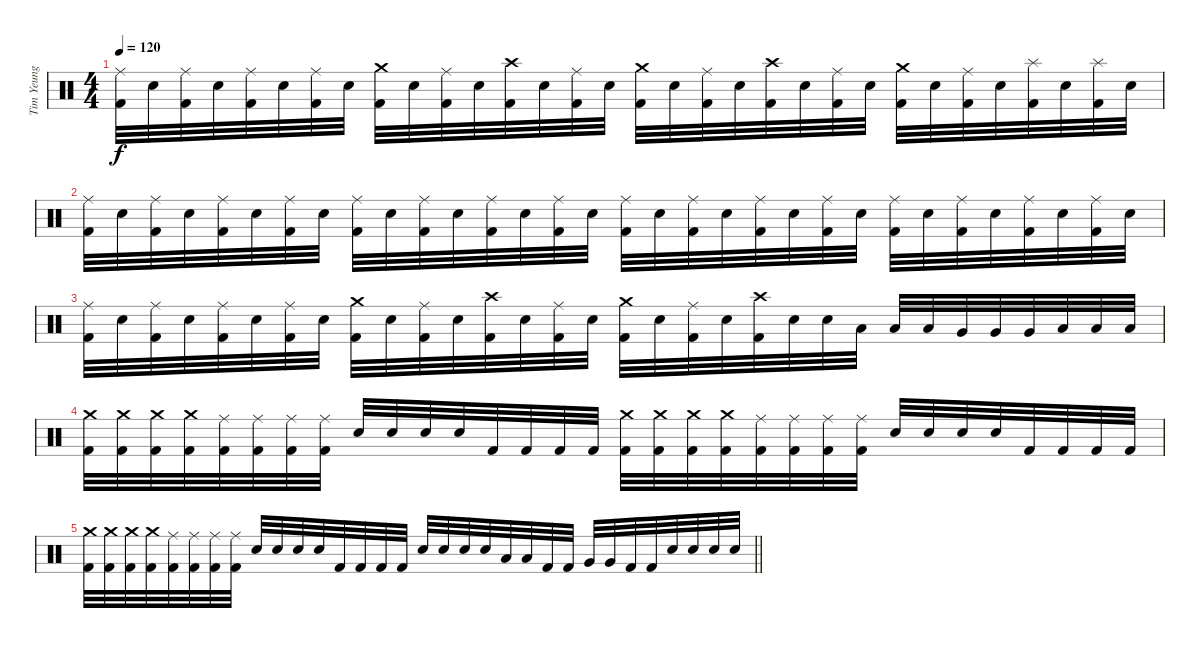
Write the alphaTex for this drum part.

\track ("Tim Yeung" "Tim Yeung") {instrument percussion}
\staff {score}
\articulation defaults
\ts (4 4)
\tempo 120
\clef neutral
\ks c
("Ride (middle)" "Kick (hit) 2").32{dy f} "Electric Snare (hit)".32 ("Ride (middle)" "Kick (hit) 2").32 "Electric Snare (hit)".32 ("Ride (middle)" "Kick (hit) 2").32 "Electric Snare (hit)".32 ("Ride (middle)" "Kick (hit) 2").32 "Electric Snare (hit)".32 ("Crash medium (hit)" "Kick (hit) 2").32 "Electric Snare (hit)".32 ("Ride (middle)" "Kick (hit) 2").32 "Electric Snare (hit)".32 ("Crash high (hit)" "Kick (hit) 2").32 "Electric Snare (hit)".32 ("Ride (middle)" "Kick (hit) 2").32 "Electric Snare (hit)".32 ("Crash medium (hit)" "Kick (hit) 2").32 "Electric Snare (hit)".32 ("Ride (middle)" "Kick (hit) 2").32 "Electric Snare (hit)".32 ("Crash high (hit)" "Kick (hit) 2").32 "Electric Snare (hit)".32 ("Ride (middle)" "Kick (hit) 2").32 "Electric Snare (hit)".32 ("Crash medium (hit)" "Kick (hit) 2").32 "Electric Snare (hit)".32 ("Ride (middle)" "Kick (hit) 2").32 "Electric Snare (hit)".32 ("Splash (hit)" "Kick (hit) 2").32 "Electric Snare (hit)".32 ("Splash (hit)" "Kick (hit) 2").32 "Electric Snare (hit)".32 |
("Ride (middle)" "Kick (hit) 2").32 "Electric Snare (hit)".32 ("Ride (middle)" "Kick (hit) 2").32 "Electric Snare (hit)".32 ("Ride (middle)" "Kick (hit) 2").32 "Electric Snare (hit)".32 ("Ride (middle)" "Kick (hit) 2").32 "Electric Snare (hit)".32 ("Ride (middle)" "Kick (hit) 2").32 "Electric Snare (hit)".32 ("Ride (middle)" "Kick (hit) 2").32 "Electric Snare (hit)".32 ("Ride (middle)" "Kick (hit) 2").32 "Electric Snare (hit)".32 ("Ride (middle)" "Kick (hit) 2").32 "Electric Snare (hit)".32 ("Ride (middle)" "Kick (hit) 2").32 "Electric Snare (hit)".32 ("Ride (middle)" "Kick (hit) 2").32 "Electric Snare (hit)".32 ("Ride (middle)" "Kick (hit) 2").32 "Electric Snare (hit)".32 ("Ride (middle)" "Kick (hit) 2").32 "Electric Snare (hit)".32 ("Ride (middle)" "Kick (hit) 2").32 "Electric Snare (hit)".32 ("Ride (middle)" "Kick (hit) 2").32 "Electric Snare (hit)".32 ("Ride (middle)" "Kick (hit) 2").32 "Electric Snare (hit)".32 ("Ride (middle)" "Kick (hit) 2").32 "Electric Snare (hit)".32 |
("Ride (middle)" "Kick (hit) 2").32 "Electric Snare (hit)".32 ("Ride (middle)" "Kick (hit) 2").32 "Electric Snare (hit)".32 ("Ride (middle)" "Kick (hit) 2").32 "Electric Snare (hit)".32 ("Ride (middle)" "Kick (hit) 2").32 "Electric Snare (hit)".32 ("Crash medium (hit)" "Kick (hit) 2").32 "Electric Snare (hit)".32 ("Ride (middle)" "Kick (hit) 2").32 "Electric Snare (hit)".32 ("Crash high (hit)" "Kick (hit) 2").32 "Electric Snare (hit)".32 ("Ride (middle)" "Kick (hit) 2").32 "Electric Snare (hit)".32 ("Crash medium (hit)" "Kick (hit) 2").32 "Electric Snare (hit)".32 ("Ride (middle)" "Kick (hit) 2").32 "Electric Snare (hit)".32 ("Crash high (hit)" "Kick (hit) 2").32 "Electric Snare (hit)".32 "Electric Snare (hit)".32 "Low Tom (hit)".32 "Low Tom (hit)".32 "Low Tom (hit)".32 "Very Low Tom (hit)".32 "Very Low Tom (hit)".32 "Very Low Tom (hit)".32 "Low Floor Tom (hit)".32 "Low Floor Tom (hit)".32 "Low Floor Tom (hit)".32 |
("Crash medium (hit)" "Kick (hit) 2").32 ("Crash medium (hit)" "Kick (hit) 2").32 ("Crash medium (hit)" "Kick (hit) 2").32 ("Crash medium (hit)" "Kick (hit) 2").32 ("Ride (middle)" "Kick (hit) 2").32 ("Ride (middle)" "Kick (hit) 2").32 ("Ride (middle)" "Kick (hit) 2").32 ("Ride (middle)" "Kick (hit) 2").32 "Electric Snare (hit)".32 "Electric Snare (hit)".32 "Electric Snare (hit)".32 "Electric Snare (hit)".32 "Kick (hit) 2".32 "Kick (hit) 2".32 "Kick (hit) 2".32 "Kick (hit) 2".32 ("Crash medium (hit)" "Kick (hit) 2").32 ("Crash medium (hit)" "Kick (hit) 2").32 ("Crash medium (hit)" "Kick (hit) 2").32 ("Crash medium (hit)" "Kick (hit) 2").32 ("Ride (middle)" "Kick (hit) 2").32 ("Ride (middle)" "Kick (hit) 2").32 ("Ride (middle)" "Kick (hit) 2").32 ("Ride (middle)" "Kick (hit) 2").32 "Electric Snare (hit)".32 "Electric Snare (hit)".32 "Electric Snare (hit)".32 "Electric Snare (hit)".32 "Kick (hit) 2".32 "Kick (hit) 2".32 "Kick (hit) 2".32 "Kick (hit) 2".32 |
\barLineRight lightlight
("Crash medium (hit)" "Kick (hit) 2").32 ("Crash medium (hit)" "Kick (hit) 2").32 ("Crash medium (hit)" "Kick (hit) 2").32 ("Crash medium (hit)" "Kick (hit) 2").32 ("Ride (middle)" "Kick (hit) 2").32 ("Ride (middle)" "Kick (hit) 2").32 ("Ride (middle)" "Kick (hit) 2").32 ("Ride (middle)" "Kick (hit) 2").32 "Electric Snare (hit)".32 "Electric Snare (hit)".32 "Electric Snare (hit)".32 "Electric Snare (hit)".32 "Kick (hit) 2".32 "Kick (hit) 2".32 "Kick (hit) 2".32 "Kick (hit) 2".32 "Electric Snare (hit)".32 "Electric Snare (hit)".32 "Electric Snare (hit)".32 "Electric Snare (hit)".32 "Low Tom (hit)".32 "Low Tom (hit)".32 "Kick (hit) 2".32 "Kick (hit) 2".32 "Very Low Tom (hit)".32 "Very Low Tom (hit)".32 "Kick (hit) 2".32 "Kick (hit) 2".32 "Electric Snare (hit)".32 "Electric Snare (hit)".32 "Electric Snare (hit)".32 "Electric Snare (hit)".32
